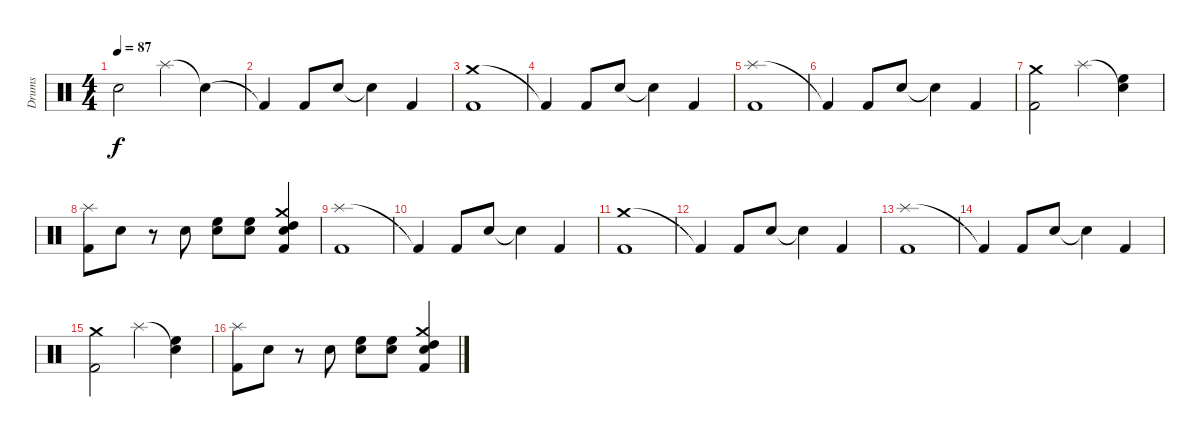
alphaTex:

\track ("Drums" "Drums") {instrument percussion}
\staff {score}
\articulation defaults
\ts (4 4)
\tempo 87
\clef neutral
\ks c "Snare (hit)"{t}.2{dy f} "Splash (hit)".4 "Snare (hit)"{t}.4
|
"Kick (hit) 2"{t}.4 "Kick (hit) 2".8 "Snare (hit) 2".8 "Snare (hit)"{t}.4 "Kick (hit) 2".4 |
("Crash medium (hit)" "Kick (hit) 2").1 |
"Kick (hit) 2"{t}.4 "Kick (hit) 2".8 "Snare (hit) 2".8 "Snare (hit)"{t}.4 "Kick (hit) 2".4 |
("Splash (hit)" "Kick (hit) 2").1 |
"Kick (hit) 2"{t}.4 "Kick (hit) 2".8 "Snare (hit) 2".8 "Snare (hit)"{t}.4 "Kick (hit) 2".4 |
("Crash medium (hit)" "Kick (hit) 2").2 "Splash (hit)".4 ("Snare (hit)"{t} "High Floor Tom (hit)").4 |
("Splash (hit)" "Kick (hit) 2").8 "Electric Snare (hit)".8 r.8 "Electric Snare (hit)".8 ("Electric Snare (hit)" "High Floor Tom (hit)").8 ("Electric Snare (hit)" "High Floor Tom (hit)").8 ("Crash medium (hit)" "Kick (hit) 2" "Electric Snare (hit)" "High Tom (hit)").4 |
("Splash (hit)" "Kick (hit) 2").1 |
"Kick (hit) 2"{t}.4 "Kick (hit) 2".8 "Snare (hit) 2".8 "Snare (hit)"{t}.4 "Kick (hit) 2".4 |
("Crash medium (hit)" "Kick (hit) 2").1 |
"Kick (hit) 2"{t}.4 "Kick (hit) 2".8 "Snare (hit) 2".8 "Snare (hit)"{t}.4 "Kick (hit) 2".4 |
("Splash (hit)" "Kick (hit) 2").1 |
"Kick (hit) 2"{t}.4 "Kick (hit) 2".8 "Snare (hit) 2".8 "Snare (hit)"{t}.4 "Kick (hit) 2".4 |
("Crash medium (hit)" "Kick (hit) 2").2 "Splash (hit)".4 ("Snare (hit)"{t} "High Floor Tom (hit)").4 |
("Splash (hit)" "Kick (hit) 2").8 "Electric Snare (hit)".8 r.8 "Electric Snare (hit)".8 ("Electric Snare (hit)" "High Floor Tom (hit)").8 ("Electric Snare (hit)" "High Floor Tom (hit)").8 ("Crash medium (hit)" "Kick (hit) 2" "Electric Snare (hit)" "High Tom (hit)").4
